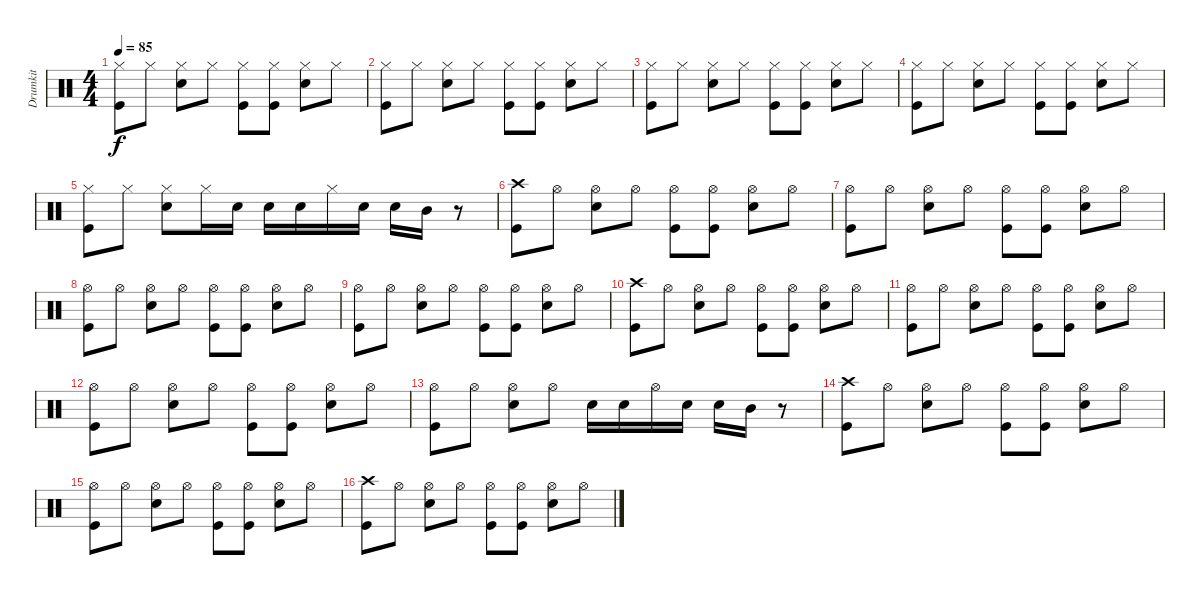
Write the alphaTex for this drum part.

\track ("Drumkit" "Drumkit") {instrument percussion}
\staff {score}
\articulation defaults
\ts (4 4)
\tempo 85
\clef neutral
\ks c
("Hi-Hat (closed)" "Kick (hit)").8{dy f} "Hi-Hat (closed)".8 ("Hi-Hat (closed)" "Snare (hit) 2").8 "Hi-Hat (closed)".8 ("Hi-Hat (closed)" "Kick (hit)").8 ("Hi-Hat (closed)" "Kick (hit)").8 ("Hi-Hat (closed)" "Snare (hit) 2").8 "Hi-Hat (closed)".8 |
("Hi-Hat (closed)" "Kick (hit)").8 "Hi-Hat (closed)".8 ("Hi-Hat (closed)" "Snare (hit) 2").8 "Hi-Hat (closed)".8 ("Hi-Hat (closed)" "Kick (hit)").8 ("Hi-Hat (closed)" "Kick (hit)").8 ("Hi-Hat (closed)" "Snare (hit) 2").8 "Hi-Hat (closed)".8 |
("Hi-Hat (closed)" "Kick (hit)").8 "Hi-Hat (closed)".8 ("Hi-Hat (closed)" "Snare (hit) 2").8 "Hi-Hat (closed)".8 ("Hi-Hat (closed)" "Kick (hit)").8 ("Hi-Hat (closed)" "Kick (hit)").8 ("Hi-Hat (closed)" "Snare (hit) 2").8 "Hi-Hat (closed)".8 |
("Hi-Hat (closed)" "Kick (hit)").8 "Hi-Hat (closed)".8 ("Hi-Hat (closed)" "Snare (hit) 2").8 "Hi-Hat (closed)".8 ("Hi-Hat (closed)" "Kick (hit)").8 ("Hi-Hat (closed)" "Kick (hit)").8 ("Hi-Hat (closed)" "Snare (hit) 2").8 "Hi-Hat (closed)".8 |
("Hi-Hat (closed)" "Kick (hit)").8 "Hi-Hat (closed)".8 ("Hi-Hat (closed)" "Snare (hit) 2").8 "Hi-Hat (closed)".16 "Snare (hit) 2".16 "Snare (hit) 2".16 "Snare (hit) 2".16 "Hi-Hat (closed)".16 "Snare (hit) 2".16 "Snare (hit) 2".16 "Mid Tom (hit)".16 r.8 |
("Crash high (hit)" "Kick (hit)").8 "Hi-Hat (open)".8 ("Hi-Hat (open)" "Snare (hit) 2").8 "Hi-Hat (open)".8 ("Hi-Hat (open)" "Kick (hit)").8 ("Hi-Hat (open)" "Kick (hit)").8 ("Hi-Hat (open)" "Snare (hit) 2").8 "Hi-Hat (open)".8 |
("Hi-Hat (open)" "Kick (hit)").8 "Hi-Hat (open)".8 ("Hi-Hat (open)" "Snare (hit) 2").8 "Hi-Hat (open)".8 ("Hi-Hat (open)" "Kick (hit)").8 ("Hi-Hat (open)" "Kick (hit)").8 ("Hi-Hat (open)" "Snare (hit) 2").8 "Hi-Hat (open)".8 |
("Hi-Hat (open)" "Kick (hit)").8 "Hi-Hat (open)".8 ("Hi-Hat (open)" "Snare (hit) 2").8 "Hi-Hat (open)".8 ("Hi-Hat (open)" "Kick (hit)").8 ("Hi-Hat (open)" "Kick (hit)").8 ("Hi-Hat (open)" "Snare (hit) 2").8 "Hi-Hat (open)".8 |
("Hi-Hat (open)" "Kick (hit)").8 "Hi-Hat (open)".8 ("Hi-Hat (open)" "Snare (hit) 2").8 "Hi-Hat (open)".8 ("Hi-Hat (open)" "Kick (hit)").8 ("Hi-Hat (open)" "Kick (hit)").8 ("Hi-Hat (open)" "Snare (hit) 2").8 "Hi-Hat (open)".8 |
("Crash high (hit)" "Kick (hit)").8 "Hi-Hat (open)".8 ("Hi-Hat (open)" "Snare (hit) 2").8 "Hi-Hat (open)".8 ("Hi-Hat (open)" "Kick (hit)").8 ("Hi-Hat (open)" "Kick (hit)").8 ("Hi-Hat (open)" "Snare (hit) 2").8 "Hi-Hat (open)".8 |
("Hi-Hat (open)" "Kick (hit)").8 "Hi-Hat (open)".8 ("Hi-Hat (open)" "Snare (hit) 2").8 "Hi-Hat (open)".8 ("Hi-Hat (open)" "Kick (hit)").8 ("Hi-Hat (open)" "Kick (hit)").8 ("Hi-Hat (open)" "Snare (hit) 2").8 "Hi-Hat (open)".8 |
("Hi-Hat (open)" "Kick (hit)").8 "Hi-Hat (open)".8 ("Hi-Hat (open)" "Snare (hit) 2").8 "Hi-Hat (open)".8 ("Hi-Hat (open)" "Kick (hit)").8 ("Hi-Hat (open)" "Kick (hit)").8 ("Hi-Hat (open)" "Snare (hit) 2").8 "Hi-Hat (open)".8 |
("Hi-Hat (open)" "Kick (hit)").8 "Hi-Hat (open)".8 ("Hi-Hat (open)" "Snare (hit) 2").8 "Hi-Hat (open)".8 "Snare (hit) 2".16 "Snare (hit) 2".16 "Hi-Hat (open)".16 "Snare (hit) 2".16 "Snare (hit) 2".16 "Mid Tom (hit)".16 r.8 |
("Crash high (hit)" "Kick (hit)").8 "Hi-Hat (open)".8 ("Hi-Hat (open)" "Snare (hit) 2").8 "Hi-Hat (open)".8 ("Hi-Hat (open)" "Kick (hit)").8 ("Hi-Hat (open)" "Kick (hit)").8 ("Hi-Hat (open)" "Snare (hit) 2").8 "Hi-Hat (open)".8 |
("Hi-Hat (open)" "Kick (hit)").8 "Hi-Hat (open)".8 ("Hi-Hat (open)" "Snare (hit) 2").8 "Hi-Hat (open)".8 ("Hi-Hat (open)" "Kick (hit)").8 ("Hi-Hat (open)" "Kick (hit)").8 ("Hi-Hat (open)" "Snare (hit) 2").8 "Hi-Hat (open)".8 |
("Crash high (hit)" "Kick (hit)").8 "Hi-Hat (open)".8 ("Hi-Hat (open)" "Snare (hit) 2").8 "Hi-Hat (open)".8 ("Hi-Hat (open)" "Kick (hit)").8 ("Hi-Hat (open)" "Kick (hit)").8 ("Hi-Hat (open)" "Snare (hit) 2").8 "Hi-Hat (open)".8
